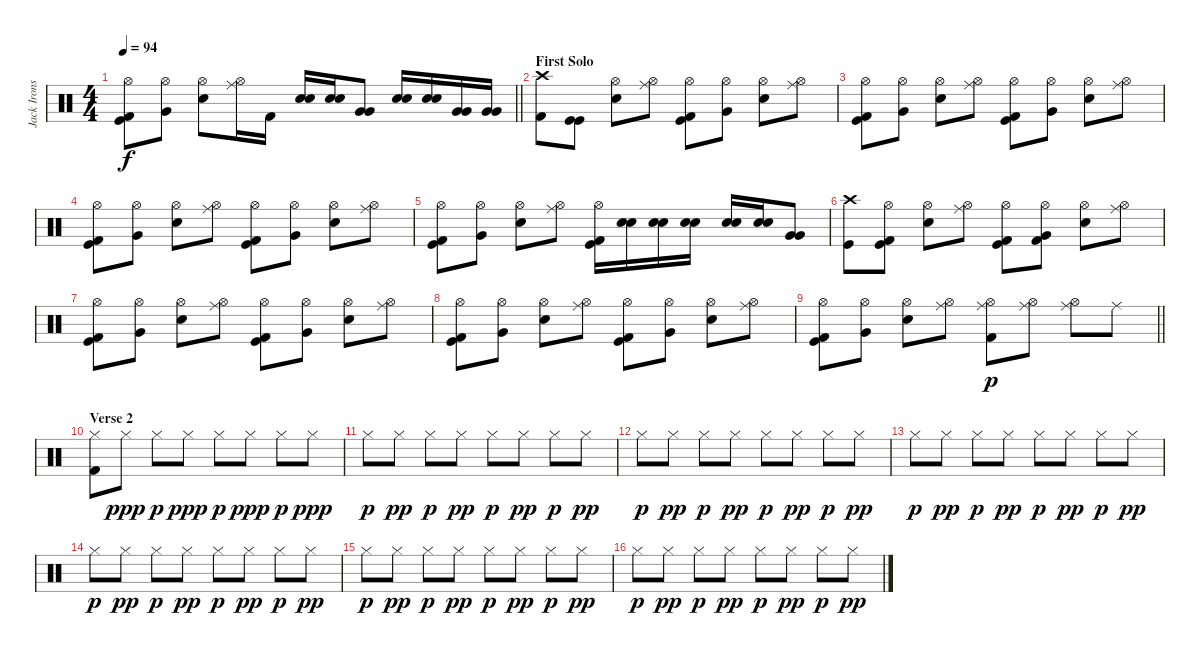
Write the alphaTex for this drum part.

\track ("Jack Irons" "Jack Irons") {instrument percussion}
\staff {score}
\articulation defaults
\ts (4 4)
\tempo 94
\clef neutral
\barLineRight lightlight
\ks c
("Hi-Hat (open)" "Kick (hit)" "Kick (hit) 2").8{dy f} ("Hi-Hat (open)" "Very Low Tom (hit)").8 ("Hi-Hat (open)" "Electric Snare (hit)").8 ("Hi-Hat (open)" "Ride (middle)").16 "Kick (hit) 2".16 ("Electric Snare (hit)" "Electric Snare (hit)").16 ("Electric Snare (hit)" "Electric Snare (hit)").16 ("Very Low Tom (hit)" "Very Low Tom (hit)").8 ("Electric Snare (hit)" "Electric Snare (hit)").16 ("Electric Snare (hit)" "Electric Snare (hit)").16 ("Very Low Tom (hit)" "Very Low Tom (hit)").16 ("Very Low Tom (hit)" "Very Low Tom (hit)").16 |
\section ("" "First Solo")
("Crash high (hit)" "Kick (hit) 2").8 ("Kick (hit)" "Kick (hit)").8 ("Hi-Hat (open)" "Electric Snare (hit)").8 ("Hi-Hat (open)" "Ride (middle)").8 ("Hi-Hat (open)" "Kick (hit)" "Kick (hit) 2").8 ("Hi-Hat (open)" "Very Low Tom (hit)").8 ("Hi-Hat (open)" "Electric Snare (hit)").8 ("Hi-Hat (open)" "Ride (middle)").8 |
("Hi-Hat (open)" "Kick (hit)" "Kick (hit) 2").8 ("Hi-Hat (open)" "Very Low Tom (hit)").8 ("Hi-Hat (open)" "Electric Snare (hit)").8 ("Hi-Hat (open)" "Ride (middle)").8 ("Hi-Hat (open)" "Kick (hit)" "Kick (hit) 2").8 ("Hi-Hat (open)" "Very Low Tom (hit)").8 ("Hi-Hat (open)" "Electric Snare (hit)").8 ("Hi-Hat (open)" "Ride (middle)").8 |
("Hi-Hat (open)" "Kick (hit)" "Kick (hit) 2").8 ("Hi-Hat (open)" "Very Low Tom (hit)").8 ("Hi-Hat (open)" "Electric Snare (hit)").8 ("Hi-Hat (open)" "Ride (middle)").8 ("Hi-Hat (open)" "Kick (hit)" "Kick (hit) 2").8 ("Hi-Hat (open)" "Very Low Tom (hit)").8 ("Hi-Hat (open)" "Electric Snare (hit)").8 ("Hi-Hat (open)" "Ride (middle)").8 |
("Hi-Hat (open)" "Kick (hit)" "Kick (hit) 2").8 ("Hi-Hat (open)" "Very Low Tom (hit)").8 ("Hi-Hat (open)" "Electric Snare (hit)").8 ("Hi-Hat (open)" "Ride (middle)").8 ("Hi-Hat (open)" "Kick (hit)" "Kick (hit) 2").16 ("Electric Snare (hit)" "Electric Snare (hit)").16 ("Electric Snare (hit)" "Electric Snare (hit)").16 ("Electric Snare (hit)" "Electric Snare (hit)").16 ("Electric Snare (hit)" "Electric Snare (hit)").16 ("Electric Snare (hit)" "Electric Snare (hit)").16 ("Very Low Tom (hit)" "Very Low Tom (hit)").8 |
("Crash high (hit)" "Kick (hit)").8 ("Hi-Hat (open)" "Kick (hit)" "Kick (hit) 2").8 ("Hi-Hat (open)" "Electric Snare (hit)").8 ("Hi-Hat (open)" "Ride (middle)").8 ("Hi-Hat (open)" "Kick (hit)" "Kick (hit) 2").8 ("Hi-Hat (open)" "Very Low Tom (hit)" "Kick (hit) 2").8 ("Hi-Hat (open)" "Electric Snare (hit)").8 ("Hi-Hat (open)" "Ride (middle)").8 |
("Hi-Hat (open)" "Kick (hit)" "Kick (hit) 2").8 ("Hi-Hat (open)" "Very Low Tom (hit)").8 ("Hi-Hat (open)" "Electric Snare (hit)").8 ("Hi-Hat (open)" "Ride (middle)").8 ("Hi-Hat (open)" "Kick (hit)" "Kick (hit) 2").8 ("Hi-Hat (open)" "Very Low Tom (hit)").8 ("Hi-Hat (open)" "Electric Snare (hit)").8 ("Hi-Hat (open)" "Ride (middle)").8 |
("Hi-Hat (open)" "Kick (hit)" "Kick (hit) 2").8 ("Hi-Hat (open)" "Very Low Tom (hit)").8 ("Hi-Hat (open)" "Electric Snare (hit)").8 ("Hi-Hat (open)" "Ride (middle)").8 ("Hi-Hat (open)" "Kick (hit)" "Kick (hit) 2").8 ("Hi-Hat (open)" "Very Low Tom (hit)").8 ("Hi-Hat (open)" "Electric Snare (hit)").8 ("Hi-Hat (open)" "Ride (middle)").8 |
\barLineRight lightlight
("Hi-Hat (open)" "Kick (hit)" "Kick (hit) 2").8 ("Hi-Hat (open)" "Very Low Tom (hit)").8 ("Hi-Hat (open)" "Electric Snare (hit)").8 ("Hi-Hat (open)" "Ride (middle)").8 ("Hi-Hat (open)" "Ride (middle)" "Kick (hit) 2").8{dy p} ("Hi-Hat (open)" "Ride (middle)").8 ("Hi-Hat (open)" "Ride (middle)").8 "Ride (middle)".8 |
\section ("" "Verse 2")
("Hi-Hat (closed)" "Kick (hit) 2").8 "Hi-Hat (closed)".8{dy ppp} "Hi-Hat (closed)".8{dy p} "Hi-Hat (closed)".8{dy ppp} "Hi-Hat (closed)".8{dy p} "Hi-Hat (closed)".8{dy ppp} "Hi-Hat (closed)".8{dy p} "Hi-Hat (closed)".8{dy ppp} |
"Hi-Hat (closed)".8{dy p} "Hi-Hat (closed)".8{dy pp} "Hi-Hat (closed)".8{dy p} "Hi-Hat (closed)".8{dy pp} "Hi-Hat (closed)".8{dy p} "Hi-Hat (closed)".8{dy pp} "Hi-Hat (closed)".8{dy p} "Hi-Hat (closed)".8{dy pp} |
"Hi-Hat (closed)".8{dy p} "Hi-Hat (closed)".8{dy pp} "Hi-Hat (closed)".8{dy p} "Hi-Hat (closed)".8{dy pp} "Hi-Hat (closed)".8{dy p} "Hi-Hat (closed)".8{dy pp} "Hi-Hat (closed)".8{dy p} "Hi-Hat (closed)".8{dy pp} |
"Hi-Hat (closed)".8{dy p} "Hi-Hat (closed)".8{dy pp} "Hi-Hat (closed)".8{dy p} "Hi-Hat (closed)".8{dy pp} "Hi-Hat (closed)".8{dy p} "Hi-Hat (closed)".8{dy pp} "Hi-Hat (closed)".8{dy p} "Hi-Hat (closed)".8{dy pp} |
"Hi-Hat (closed)".8{dy p} "Hi-Hat (closed)".8{dy pp} "Hi-Hat (closed)".8{dy p} "Hi-Hat (closed)".8{dy pp} "Hi-Hat (closed)".8{dy p} "Hi-Hat (closed)".8{dy pp} "Hi-Hat (closed)".8{dy p} "Hi-Hat (closed)".8{dy pp} |
"Hi-Hat (closed)".8{dy p} "Hi-Hat (closed)".8{dy pp} "Hi-Hat (closed)".8{dy p} "Hi-Hat (closed)".8{dy pp} "Hi-Hat (closed)".8{dy p} "Hi-Hat (closed)".8{dy pp} "Hi-Hat (closed)".8{dy p} "Hi-Hat (closed)".8{dy pp} |
"Hi-Hat (closed)".8{dy p} "Hi-Hat (closed)".8{dy pp} "Hi-Hat (closed)".8{dy p} "Hi-Hat (closed)".8{dy pp} "Hi-Hat (closed)".8{dy p} "Hi-Hat (closed)".8{dy pp} "Hi-Hat (closed)".8{dy p} "Hi-Hat (closed)".8{dy pp}
